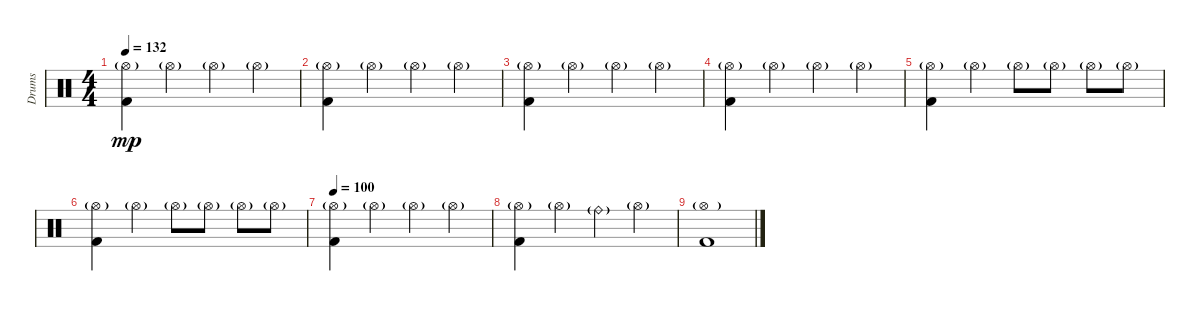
\track ("Drums" "Drums") {instrument percussion}
\staff {score}
\articulation defaults
\ts (4 4)
\tempo 132
\clef neutral
\ks c
("Hi-Hat (open)"{g} "Kick (hit) 2").4{dy mp} "Hi-Hat (open)"{g}.4 "Hi-Hat (open)"{g}.4 "Hi-Hat (open)"{g}.4 |
("Hi-Hat (open)"{g} "Kick (hit) 2").4 "Hi-Hat (open)"{g}.4 "Hi-Hat (open)"{g}.4 "Hi-Hat (open)"{g}.4 |
("Hi-Hat (open)"{g} "Kick (hit) 2").4 "Hi-Hat (open)"{g}.4 "Hi-Hat (open)"{g}.4 "Hi-Hat (open)"{g}.4 |
("Hi-Hat (open)"{g} "Kick (hit) 2").4 "Hi-Hat (open)"{g}.4 "Hi-Hat (open)"{g}.4 "Hi-Hat (open)"{g}.4 |
("Hi-Hat (open)"{g} "Kick (hit) 2").4 "Hi-Hat (open)"{g}.4 "Hi-Hat (open)"{g}.8 "Hi-Hat (open)"{g}.8 "Hi-Hat (open)"{g}.8 "Hi-Hat (open)"{g}.8 |
("Hi-Hat (open)"{g} "Kick (hit) 2").4 "Hi-Hat (open)"{g}.4 "Hi-Hat (open)"{g}.8 "Hi-Hat (open)"{g}.8 "Hi-Hat (open)"{g}.8 "Hi-Hat (open)"{g}.8 |
\tempo 100
("Hi-Hat (open)"{g} "Kick (hit) 2").4 "Hi-Hat (open)"{g}.4 "Hi-Hat (open)"{g}.4 "Hi-Hat (open)"{g}.4 |
("Hi-Hat (open)"{g} "Kick (hit) 2").4 "Hi-Hat (open)"{g}.4 "Ride (bell)"{g}.4 "Hi-Hat (open)"{g}.4 |
("Hi-Hat (open)"{g} "Kick (hit) 2").1
